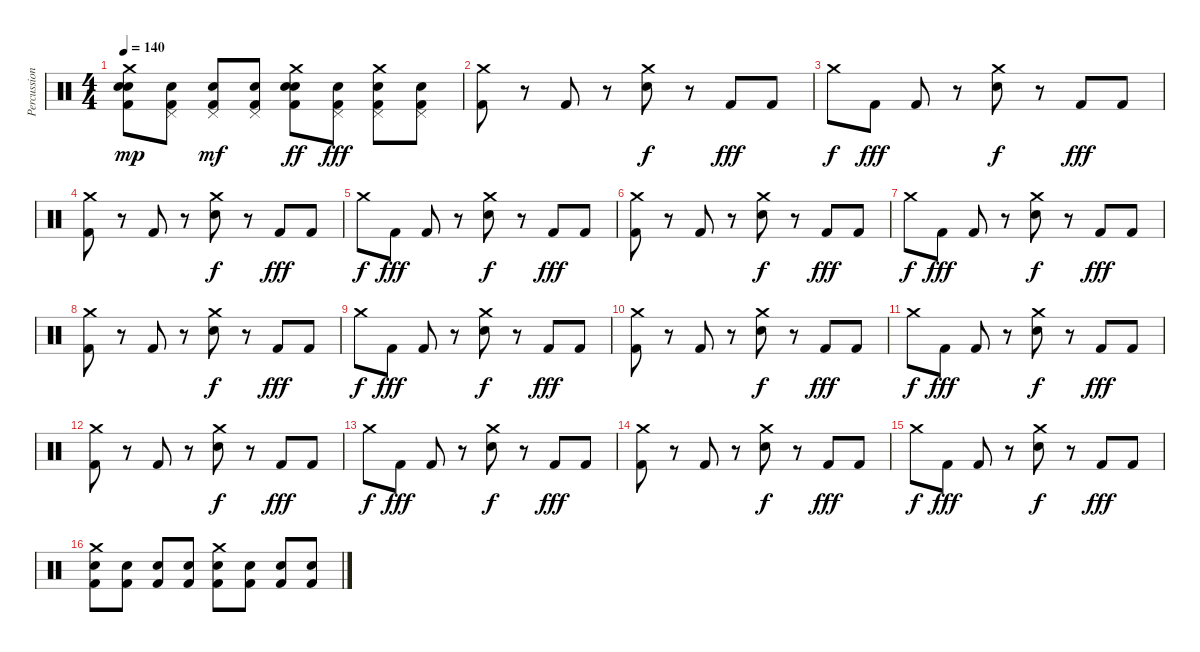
\track ("Percussion" "Percussion") {instrument percussion}
\staff {score}
\articulation defaults
\ts (4 4)
\tempo 140
\clef neutral
\ks c
("Crash medium (hit)" "Electric Snare (hit)" "Electric Snare (hit)" "Kick (hit) 2").8{dy mp} ("Pedal Hi-Hat (hit)" "Electric Snare (hit)" "Kick (hit) 2").8 ("Pedal Hi-Hat (hit)" "Electric Snare (hit)" "Kick (hit) 2").8{dy mf} ("Pedal Hi-Hat (hit)" "Electric Snare (hit)" "Kick (hit) 2").8 ("Crash medium (hit)" "Electric Snare (hit)" "Electric Snare (hit)" "Kick (hit) 2").8{dy ff} ("Pedal Hi-Hat (hit)" "Electric Snare (hit)" "Kick (hit) 2").8{dy fff} ("Pedal Hi-Hat (hit)" "Crash medium (hit)" "Electric Snare (hit)" "Kick (hit) 2").8 ("Pedal Hi-Hat (hit)" "Electric Snare (hit)" "Kick (hit) 2").8 |
("Crash medium (hit)" "Kick (hit) 2").8 r.8 "Kick (hit) 2".8 r.8 ("Crash medium (hit)" "Electric Snare (hit)").8{dy f} r.8 "Kick (hit) 2".8{dy fff} "Kick (hit) 2".8 |
"Crash medium (hit)".8{dy f} "Kick (hit) 2".8{dy fff} "Kick (hit) 2".8 r.8 ("Crash medium (hit)" "Electric Snare (hit)").8{dy f} r.8 "Kick (hit) 2".8{dy fff} "Kick (hit) 2".8 |
("Crash medium (hit)" "Kick (hit) 2").8 r.8 "Kick (hit) 2".8 r.8 ("Crash medium (hit)" "Electric Snare (hit)").8{dy f} r.8 "Kick (hit) 2".8{dy fff} "Kick (hit) 2".8 |
"Crash medium (hit)".8{dy f} "Kick (hit) 2".8{dy fff} "Kick (hit) 2".8 r.8 ("Crash medium (hit)" "Electric Snare (hit)").8{dy f} r.8 "Kick (hit) 2".8{dy fff} "Kick (hit) 2".8 |
("Crash medium (hit)" "Kick (hit) 2").8 r.8 "Kick (hit) 2".8 r.8 ("Crash medium (hit)" "Electric Snare (hit)").8{dy f} r.8 "Kick (hit) 2".8{dy fff} "Kick (hit) 2".8 |
"Crash medium (hit)".8{dy f} "Kick (hit) 2".8{dy fff} "Kick (hit) 2".8 r.8 ("Crash medium (hit)" "Electric Snare (hit)").8{dy f} r.8 "Kick (hit) 2".8{dy fff} "Kick (hit) 2".8 |
("Crash medium (hit)" "Kick (hit) 2").8 r.8 "Kick (hit) 2".8 r.8 ("Crash medium (hit)" "Electric Snare (hit)").8{dy f} r.8 "Kick (hit) 2".8{dy fff} "Kick (hit) 2".8 |
"Crash medium (hit)".8{dy f} "Kick (hit) 2".8{dy fff} "Kick (hit) 2".8 r.8 ("Crash medium (hit)" "Electric Snare (hit)").8{dy f} r.8 "Kick (hit) 2".8{dy fff} "Kick (hit) 2".8 |
("Crash medium (hit)" "Kick (hit) 2").8 r.8 "Kick (hit) 2".8 r.8 ("Crash medium (hit)" "Electric Snare (hit)").8{dy f} r.8 "Kick (hit) 2".8{dy fff} "Kick (hit) 2".8 |
"Crash medium (hit)".8{dy f} "Kick (hit) 2".8{dy fff} "Kick (hit) 2".8 r.8 ("Crash medium (hit)" "Electric Snare (hit)").8{dy f} r.8 "Kick (hit) 2".8{dy fff} "Kick (hit) 2".8 |
("Crash medium (hit)" "Kick (hit) 2").8 r.8 "Kick (hit) 2".8 r.8 ("Crash medium (hit)" "Electric Snare (hit)").8{dy f} r.8 "Kick (hit) 2".8{dy fff} "Kick (hit) 2".8 |
"Crash medium (hit)".8{dy f} "Kick (hit) 2".8{dy fff} "Kick (hit) 2".8 r.8 ("Crash medium (hit)" "Electric Snare (hit)").8{dy f} r.8 "Kick (hit) 2".8{dy fff} "Kick (hit) 2".8 |
("Crash medium (hit)" "Kick (hit) 2").8 r.8 "Kick (hit) 2".8 r.8 ("Crash medium (hit)" "Electric Snare (hit)").8{dy f} r.8 "Kick (hit) 2".8{dy fff} "Kick (hit) 2".8 |
"Crash medium (hit)".8{dy f} "Kick (hit) 2".8{dy fff} "Kick (hit) 2".8 r.8 ("Crash medium (hit)" "Electric Snare (hit)").8{dy f} r.8 "Kick (hit) 2".8{dy fff} "Kick (hit) 2".8 |
("Crash medium (hit)" "Electric Snare (hit)" "Kick (hit) 2").8 ("Electric Snare (hit)" "Kick (hit) 2").8 ("Electric Snare (hit)" "Kick (hit) 2").8 ("Electric Snare (hit)" "Kick (hit) 2").8 ("Crash medium (hit)" "Electric Snare (hit)" "Kick (hit) 2").8 ("Electric Snare (hit)" "Kick (hit) 2").8 ("Electric Snare (hit)" "Kick (hit) 2").8 ("Electric Snare (hit)" "Kick (hit) 2").8
